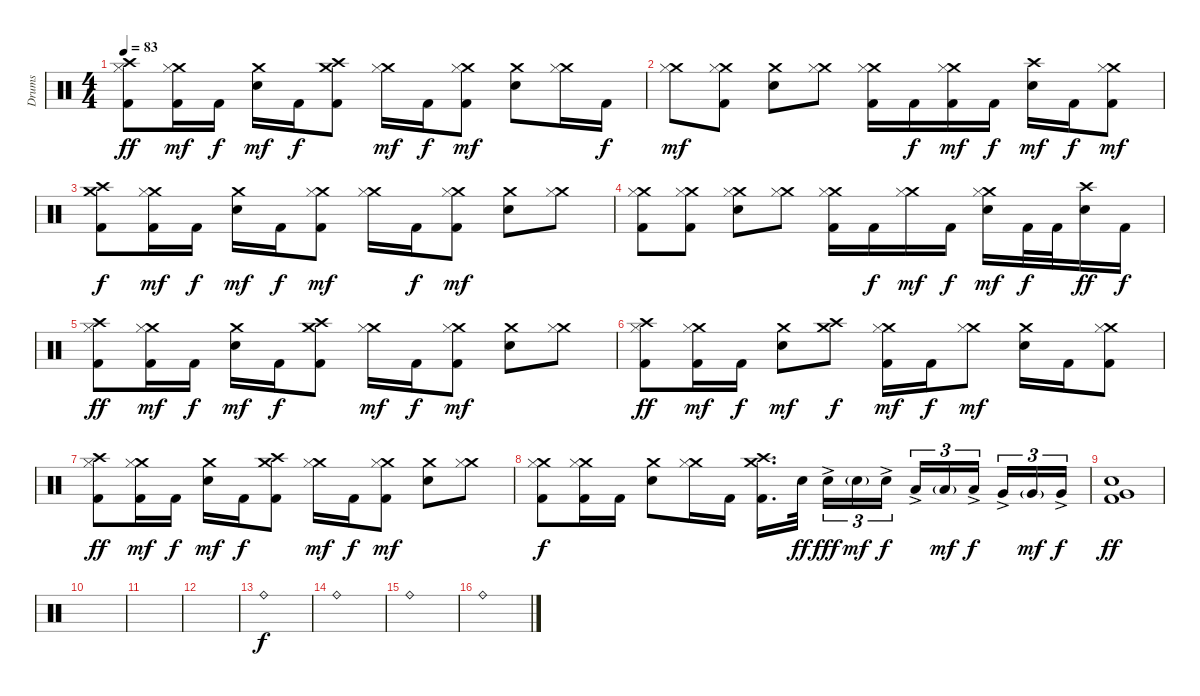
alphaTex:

\track ("Drums" "Drums") {instrument percussion}
\staff {score}
\articulation defaults
\ts (4 4)
\tempo 83
\clef neutral
\ks c
("Crash high (hit)" "Hi-Hat (closed)" "Kick (hit) 2").8{dy ff} ("Crash medium (hit)" "Hi-Hat (closed)" "Kick (hit) 2").16{dy mf} "Kick (hit) 2".16{dy f} ("Crash medium (hit)" "Electric Snare (hit)").16{dy mf} "Kick (hit) 2".16{dy f} ("Crash medium (hit)" "Crash high (hit)" "Kick (hit) 2").8 ("Crash medium (hit)" "Hi-Hat (closed)").16{dy mf} "Kick (hit) 2".16{dy f} ("Crash medium (hit)" "Hi-Hat (closed)" "Kick (hit) 2").8{dy mf} ("Crash medium (hit)" "Electric Snare (hit)").8 ("Crash medium (hit)" "Hi-Hat (closed)").16 "Kick (hit) 2".16{dy f} |
("Crash medium (hit)" "Hi-Hat (closed)").8{dy mf} ("Crash medium (hit)" "Hi-Hat (closed)" "Kick (hit) 2").8 ("Crash medium (hit)" "Electric Snare (hit)").8 ("Crash medium (hit)" "Hi-Hat (closed)").8 ("Crash medium (hit)" "Hi-Hat (closed)" "Kick (hit) 2").16 "Kick (hit) 2".16{dy f} ("Crash medium (hit)" "Hi-Hat (closed)" "Kick (hit) 2").16{dy mf} "Kick (hit) 2".16{dy f} ("Crash high (hit)" "Electric Snare (hit)").16{dy mf} "Kick (hit) 2".16{dy f} ("Crash medium (hit)" "Hi-Hat (closed)" "Kick (hit) 2").8{dy mf} |
("Crash high (hit)" "Crash medium (hit)" "Kick (hit) 2").8{dy f} ("Crash medium (hit)" "Hi-Hat (closed)" "Kick (hit) 2").16{dy mf} "Kick (hit) 2".16{dy f} ("Crash medium (hit)" "Electric Snare (hit)").16{dy mf} "Kick (hit) 2".16{dy f} ("Crash medium (hit)" "Hi-Hat (closed)" "Kick (hit) 2").8{dy mf} ("Crash medium (hit)" "Hi-Hat (closed)").16 "Kick (hit) 2".16{dy f} ("Crash medium (hit)" "Hi-Hat (closed)" "Kick (hit) 2").8{dy mf} ("Crash medium (hit)" "Electric Snare (hit)").8 ("Crash medium (hit)" "Hi-Hat (closed)").8 |
("Crash medium (hit)" "Hi-Hat (closed)" "Kick (hit) 2").8 ("Crash medium (hit)" "Hi-Hat (closed)" "Kick (hit) 2").8 ("Crash medium (hit)" "Hi-Hat (closed)" "Electric Snare (hit)").8 ("Crash medium (hit)" "Hi-Hat (closed)").8 ("Crash medium (hit)" "Hi-Hat (closed)" "Kick (hit) 2").16 "Kick (hit) 2".16{dy f} ("Crash medium (hit)" "Hi-Hat (closed)").16{dy mf} "Kick (hit) 2".16{dy f} ("Crash medium (hit)" "Hi-Hat (closed)" "Electric Snare (hit)").16{dy mf} "Kick (hit) 2".32{dy f} "Kick (hit) 2".32 ("Crash high (hit)" "Electric Snare (hit)").16{dy ff} "Kick (hit) 2".16{dy f} |
("Crash high (hit)" "Hi-Hat (closed)" "Kick (hit) 2").8{dy ff} ("Crash medium (hit)" "Hi-Hat (closed)" "Kick (hit) 2").16{dy mf} "Kick (hit) 2".16{dy f} ("Crash medium (hit)" "Electric Snare (hit)").16{dy mf} "Kick (hit) 2".16{dy f} ("Crash medium (hit)" "Crash high (hit)" "Kick (hit) 2").8 ("Crash medium (hit)" "Hi-Hat (closed)").16{dy mf} "Kick (hit) 2".16{dy f} ("Crash medium (hit)" "Hi-Hat (closed)" "Kick (hit) 2").8{dy mf} ("Crash medium (hit)" "Electric Snare (hit)").8 ("Crash medium (hit)" "Hi-Hat (closed)").8 |
("Crash high (hit)" "Hi-Hat (closed)" "Kick (hit) 2").8{dy ff} ("Crash medium (hit)" "Hi-Hat (closed)" "Kick (hit) 2").16{dy mf} "Kick (hit) 2".16{dy f} ("Crash medium (hit)" "Electric Snare (hit)").8{dy mf} ("Crash medium (hit)" "Crash high (hit)").8{dy f} ("Crash medium (hit)" "Hi-Hat (closed)" "Kick (hit) 2").16{dy mf} "Kick (hit) 2".16{dy f} ("Crash medium (hit)" "Hi-Hat (closed)").8{dy mf} ("Crash medium (hit)" "Electric Snare (hit)").16 "Kick (hit) 2".16 ("Crash medium (hit)" "Hi-Hat (closed)" "Kick (hit) 2").8 |
("Crash high (hit)" "Hi-Hat (closed)" "Kick (hit) 2").8{dy ff} ("Crash medium (hit)" "Hi-Hat (closed)" "Kick (hit) 2").16{dy mf} "Kick (hit) 2".16{dy f} ("Crash medium (hit)" "Electric Snare (hit)").16{dy mf} "Kick (hit) 2".16{dy f} ("Crash medium (hit)" "Crash high (hit)" "Kick (hit) 2").8 ("Crash medium (hit)" "Hi-Hat (closed)").16{dy mf} "Kick (hit) 2".16{dy f} ("Crash medium (hit)" "Hi-Hat (closed)" "Kick (hit) 2").8{dy mf} ("Crash medium (hit)" "Electric Snare (hit)").8 ("Crash medium (hit)" "Hi-Hat (closed)").8 |
("Crash medium (hit)" "Hi-Hat (closed)" "Kick (hit) 2").8{dy f} ("Crash medium (hit)" "Hi-Hat (closed)" "Kick (hit) 2").16 "Kick (hit) 2".16 ("Crash medium (hit)" "Electric Snare (hit)").8 ("Crash medium (hit)" "Hi-Hat (closed)").16 "Kick (hit) 2".16 ("Crash medium (hit)" "Crash high (hit)" "Kick (hit) 2").16{d} "Electric Snare (hit)".32{dy ff beam splitsecondary} "Electric Snare (hit)"{ac}.16{tu (3 2) dy fff} "Electric Snare (hit)"{g}.16{tu (3 2) dy mf} "Electric Snare (hit)"{ac}.16{tu (3 2) dy f} "Low Tom (hit)"{ac}.16{tu (3 2)} "Low Tom (hit)"{g}.16{tu (3 2) dy mf} "Low Tom (hit)"{ac}.16{tu (3 2) dy f beam splitsecondary} "Very Low Tom (hit)"{ac}.16{tu (3 2)} "Very Low Tom (hit)"{g}.16{tu (3 2) dy mf} "Very Low Tom (hit)"{ac}.16{tu (3 2) dy f} |
("Very Low Tom (hit)" "Electric Snare (hit)" "Kick (hit) 2").1{dy ff} |
|
|
|
"Ride (bell)".1{dy f} |
"Ride (bell)".1 |
"Ride (bell)".1 |
"Ride (bell)".1
